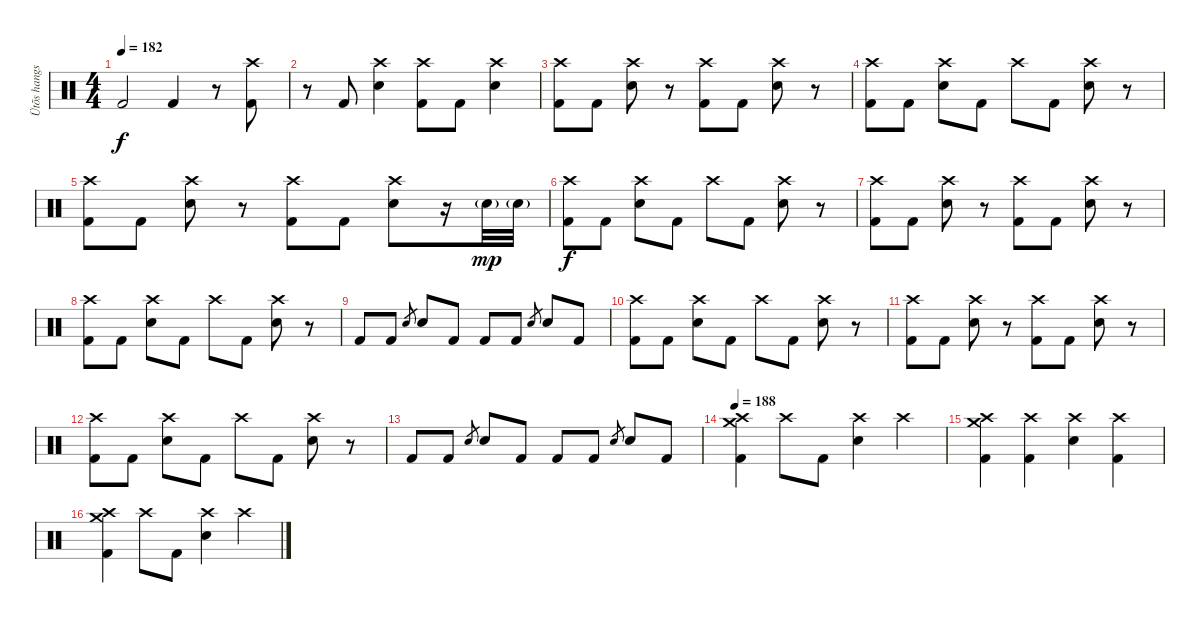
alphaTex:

\track ("Ütõs hangszer" "Ütõs hangs") {instrument percussion}
\staff {score}
\articulation defaults
\ts (4 4)
\tempo 182
\clef neutral
\ks c "Kick (hit) 2".2{dy f} "Kick (hit) 2".4
r.8 ("Crash high (hit)" "Kick (hit) 2").8 |
r.8 "Kick (hit) 2".8 ("Crash high (hit)" "Electric Snare (hit)").4 ("Crash high (hit)" "Kick (hit) 2").8 "Kick (hit) 2".8 ("Crash high (hit)" "Electric Snare (hit)").4 |
("Crash high (hit)" "Kick (hit) 2").8 "Kick (hit) 2".8 ("Crash high (hit)" "Electric Snare (hit)").8 r.8 ("Crash high (hit)" "Kick (hit) 2").8 "Kick (hit) 2".8 ("Crash high (hit)" "Electric Snare (hit)").8 r.8 |
("Crash high (hit)" "Kick (hit) 2").8 "Kick (hit) 2".8 ("Crash high (hit)" "Electric Snare (hit)").8 "Kick (hit) 2".8 "Crash high (hit)".8 "Kick (hit) 2".8 ("Crash high (hit)" "Electric Snare (hit)").8 r.8 |
("Crash high (hit)" "Kick (hit) 2").8 "Kick (hit) 2".8 ("Crash high (hit)" "Electric Snare (hit)").8 r.8 ("Crash high (hit)" "Kick (hit) 2").8 "Kick (hit) 2".8 ("Crash high (hit)" "Electric Snare (hit)").8 r.16 "Electric Snare (hit)"{g}.32{dy mp} "Electric Snare (hit)"{g}.32 |
("Crash high (hit)" "Kick (hit) 2").8{dy f} "Kick (hit) 2".8 ("Crash high (hit)" "Electric Snare (hit)").8 "Kick (hit) 2".8 "Crash high (hit)".8 "Kick (hit) 2".8 ("Crash high (hit)" "Electric Snare (hit)").8 r.8 |
("Crash high (hit)" "Kick (hit) 2").8 "Kick (hit) 2".8 ("Crash high (hit)" "Electric Snare (hit)").8 r.8 ("Crash high (hit)" "Kick (hit) 2").8 "Kick (hit) 2".8 ("Crash high (hit)" "Electric Snare (hit)").8 r.8 |
("Crash high (hit)" "Kick (hit) 2").8 "Kick (hit) 2".8 ("Crash high (hit)" "Electric Snare (hit)").8 "Kick (hit) 2".8 "Crash high (hit)".8 "Kick (hit) 2".8 ("Crash high (hit)" "Electric Snare (hit)").8 r.8 |
"Kick (hit) 2".8 "Kick (hit) 2".8 "Electric Snare (hit)".8{gr} "Electric Snare (hit)".8 "Kick (hit) 2".8 "Kick (hit) 2".8 "Kick (hit) 2".8 "Electric Snare (hit)".8{gr} "Electric Snare (hit)".8 "Kick (hit) 2".8 |
("Crash high (hit)" "Kick (hit) 2").8 "Kick (hit) 2".8 ("Crash high (hit)" "Electric Snare (hit)").8 "Kick (hit) 2".8 "Crash high (hit)".8 "Kick (hit) 2".8 ("Crash high (hit)" "Electric Snare (hit)").8 r.8 |
("Crash high (hit)" "Kick (hit) 2").8 "Kick (hit) 2".8 ("Crash high (hit)" "Electric Snare (hit)").8 r.8 ("Crash high (hit)" "Kick (hit) 2").8 "Kick (hit) 2".8 ("Crash high (hit)" "Electric Snare (hit)").8 r.8 |
("Crash high (hit)" "Kick (hit) 2").8 "Kick (hit) 2".8 ("Crash high (hit)" "Electric Snare (hit)").8 "Kick (hit) 2".8 "Crash high (hit)".8 "Kick (hit) 2".8 ("Crash high (hit)" "Electric Snare (hit)").8 r.8 |
"Kick (hit) 2".8 "Kick (hit) 2".8 "Electric Snare (hit)".8{gr} "Electric Snare (hit)".8 "Kick (hit) 2".8 "Kick (hit) 2".8 "Kick (hit) 2".8 "Electric Snare (hit)".8{gr} "Electric Snare (hit)".8 "Kick (hit) 2".8 |
\tempo 188
("Crash high (hit)" "Crash medium (hit)" "Kick (hit) 2").4 "Crash high (hit)".8 "Kick (hit) 2".8 ("Crash high (hit)" "Electric Snare (hit)").4 "Crash high (hit)".4 |
("Crash high (hit)" "Crash medium (hit)" "Kick (hit) 2").4 ("Crash high (hit)" "Kick (hit) 2").4 ("Crash high (hit)" "Electric Snare (hit)").4 ("Crash high (hit)" "Kick (hit) 2").4 |
("Crash high (hit)" "Crash medium (hit)" "Kick (hit) 2").4 "Crash high (hit)".8 "Kick (hit) 2".8 ("Crash high (hit)" "Electric Snare (hit)").4 "Crash high (hit)".4
